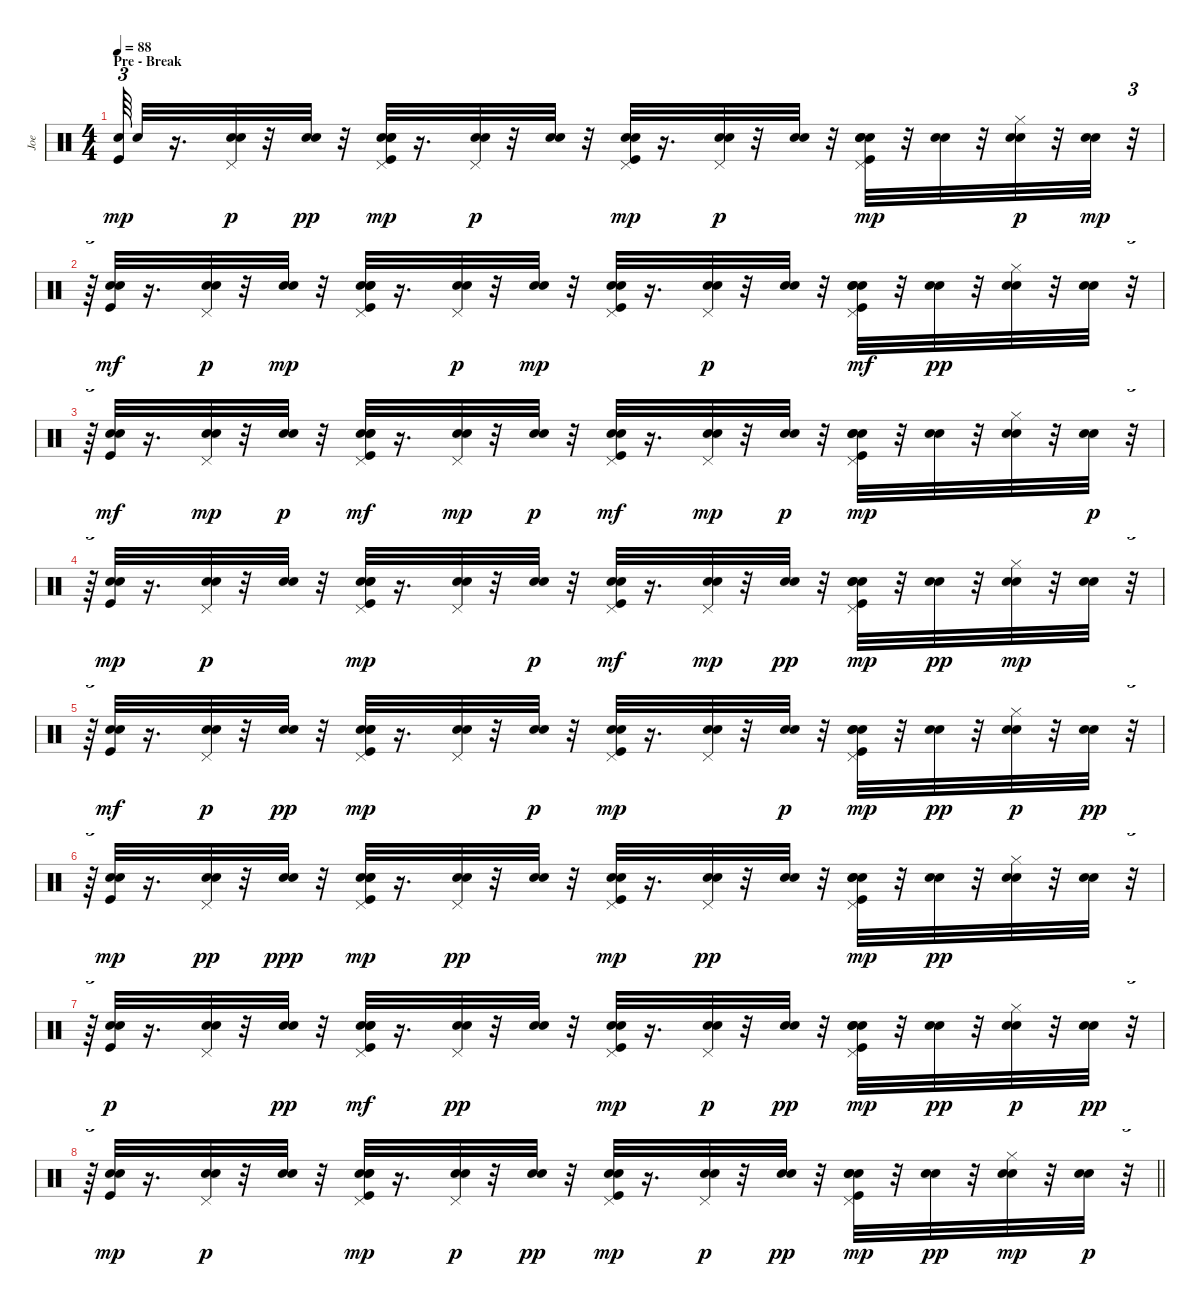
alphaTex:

\track ("Joe" "Joe") {instrument percussion}
\staff {score}
\articulation defaults
\ts (4 4)
\section ("" "Pre - Break")
\tempo 88
\clef neutral
\ks c
("Snare (hit) 2" "Kick (hit)").64{tu (3 2) dy mp} "Snare (hit) 2".32 r.16{d} ("Pedal Hi-Hat (hit)" "Snare (hit) 2" "Snare (hit) 2").32{dy p} r.32 ("Snare (hit) 2" "Snare (hit) 2").32{dy pp} r.32 ("Pedal Hi-Hat (hit)" "Kick (hit)" "Electric Snare (hit)" "Snare (hit) 2" "Snare (hit) 2").32{dy mp} r.16{d} ("Pedal Hi-Hat (hit)" "Snare (hit) 2" "Snare (hit) 2").32{dy p} r.32 ("Snare (hit) 2" "Snare (hit) 2").32 r.32 ("Kick (hit)" "Pedal Hi-Hat (hit)" "Snare (hit) 2" "Snare (hit) 2").32{dy mp} r.16{d} ("Pedal Hi-Hat (hit)" "Snare (hit) 2" "Snare (hit) 2").32{dy p} r.32 ("Snare (hit) 2" "Snare (hit) 2").32 r.32 ("Kick (hit)" "Electric Snare (hit)" "Pedal Hi-Hat (hit)" "Snare (hit) 2" "Snare (hit) 2").32{dy mp} r.32 ("Snare (hit) 2" "Snare (hit) 2").32 r.32 ("Hi-Hat (closed)" "Snare (hit) 2" "Snare (hit) 2").32{dy p} r.32 ("Snare (hit) 2" "Snare (hit) 2").32{dy mp} r.32{tu (3 2)} |
r.64{tu (3 2)} ("Kick (hit)" "Snare (hit) 2" "Snare (hit) 2").32{dy mf} r.16{d} ("Pedal Hi-Hat (hit)" "Snare (hit) 2" "Snare (hit) 2").32{dy p} r.32 ("Snare (hit) 2" "Snare (hit) 2").32{dy mp} r.32 ("Pedal Hi-Hat (hit)" "Kick (hit)" "Electric Snare (hit)" "Snare (hit) 2" "Snare (hit) 2").32 r.16{d} ("Pedal Hi-Hat (hit)" "Snare (hit) 2" "Snare (hit) 2").32{dy p} r.32 ("Snare (hit) 2" "Snare (hit) 2").32{dy mp} r.32 ("Kick (hit)" "Pedal Hi-Hat (hit)" "Snare (hit) 2" "Snare (hit) 2").32 r.16{d} ("Pedal Hi-Hat (hit)" "Snare (hit) 2" "Snare (hit) 2").32{dy p} r.32 ("Snare (hit) 2" "Snare (hit) 2").32 r.32 ("Kick (hit)" "Electric Snare (hit)" "Pedal Hi-Hat (hit)" "Snare (hit) 2" "Snare (hit) 2").32{dy mf} r.32 ("Snare (hit) 2" "Snare (hit) 2").32{dy pp} r.32 ("Hi-Hat (closed)" "Snare (hit) 2" "Snare (hit) 2").32 r.32 ("Snare (hit) 2" "Snare (hit) 2").32 r.32{tu (3 2)} |
r.64{tu (3 2)} ("Kick (hit)" "Snare (hit) 2" "Snare (hit) 2").32{dy mf} r.16{d} ("Pedal Hi-Hat (hit)" "Snare (hit) 2" "Snare (hit) 2").32{dy mp} r.32 ("Snare (hit) 2" "Snare (hit) 2").32{dy p} r.32 ("Pedal Hi-Hat (hit)" "Kick (hit)" "Electric Snare (hit)" "Snare (hit) 2" "Snare (hit) 2").32{dy mf} r.16{d} ("Pedal Hi-Hat (hit)" "Snare (hit) 2" "Snare (hit) 2").32{dy mp} r.32 ("Snare (hit) 2" "Snare (hit) 2").32{dy p} r.32 ("Kick (hit)" "Pedal Hi-Hat (hit)" "Snare (hit) 2" "Snare (hit) 2").32{dy mf} r.16{d} ("Pedal Hi-Hat (hit)" "Snare (hit) 2" "Snare (hit) 2").32{dy mp} r.32 ("Snare (hit) 2" "Snare (hit) 2").32{dy p} r.32 ("Kick (hit)" "Electric Snare (hit)" "Pedal Hi-Hat (hit)" "Snare (hit) 2" "Snare (hit) 2").32{dy mp} r.32 ("Snare (hit) 2" "Snare (hit) 2").32 r.32 ("Hi-Hat (closed)" "Snare (hit) 2" "Snare (hit) 2").32 r.32 ("Snare (hit) 2" "Snare (hit) 2").32{dy p} r.32{tu (3 2)} |
r.64{tu (3 2)} ("Kick (hit)" "Snare (hit) 2" "Snare (hit) 2").32{dy mp} r.16{d} ("Pedal Hi-Hat (hit)" "Snare (hit) 2" "Snare (hit) 2").32{dy p} r.32 ("Snare (hit) 2" "Snare (hit) 2").32 r.32 ("Pedal Hi-Hat (hit)" "Kick (hit)" "Electric Snare (hit)" "Snare (hit) 2" "Snare (hit) 2").32{dy mp} r.16{d} ("Pedal Hi-Hat (hit)" "Snare (hit) 2" "Snare (hit) 2").32 r.32 ("Snare (hit) 2" "Snare (hit) 2").32{dy p} r.32 ("Kick (hit)" "Pedal Hi-Hat (hit)" "Snare (hit) 2" "Snare (hit) 2").32{dy mf} r.16{d} ("Pedal Hi-Hat (hit)" "Snare (hit) 2" "Snare (hit) 2").32{dy mp} r.32 ("Snare (hit) 2" "Snare (hit) 2").32{dy pp} r.32 ("Kick (hit)" "Electric Snare (hit)" "Pedal Hi-Hat (hit)" "Snare (hit) 2" "Snare (hit) 2").32{dy mp} r.32 ("Snare (hit) 2" "Snare (hit) 2").32{dy pp} r.32 ("Hi-Hat (closed)" "Snare (hit) 2" "Snare (hit) 2").32{dy mp} r.32 ("Snare (hit) 2" "Snare (hit) 2").32 r.32{tu (3 2)} |
r.64{tu (3 2)} ("Kick (hit)" "Snare (hit) 2" "Snare (hit) 2").32{dy mf} r.16{d} ("Pedal Hi-Hat (hit)" "Snare (hit) 2" "Snare (hit) 2").32{dy p} r.32 ("Snare (hit) 2" "Snare (hit) 2").32{dy pp} r.32 ("Pedal Hi-Hat (hit)" "Kick (hit)" "Electric Snare (hit)" "Snare (hit) 2" "Snare (hit) 2").32{dy mp} r.16{d} ("Pedal Hi-Hat (hit)" "Snare (hit) 2" "Snare (hit) 2").32 r.32 ("Snare (hit) 2" "Snare (hit) 2").32{dy p} r.32 ("Kick (hit)" "Pedal Hi-Hat (hit)" "Snare (hit) 2" "Snare (hit) 2").32{dy mp} r.16{d} ("Pedal Hi-Hat (hit)" "Snare (hit) 2" "Snare (hit) 2").32 r.32 ("Snare (hit) 2" "Snare (hit) 2").32{dy p} r.32 ("Kick (hit)" "Electric Snare (hit)" "Pedal Hi-Hat (hit)" "Snare (hit) 2" "Snare (hit) 2").32{dy mp} r.32 ("Snare (hit) 2" "Snare (hit) 2").32{dy pp} r.32 ("Hi-Hat (closed)" "Snare (hit) 2" "Snare (hit) 2").32{dy p} r.32 ("Snare (hit) 2" "Snare (hit) 2").32{dy pp} r.32{tu (3 2)} |
r.64{tu (3 2)} ("Kick (hit)" "Snare (hit) 2" "Snare (hit) 2").32{dy mp} r.16{d} ("Pedal Hi-Hat (hit)" "Snare (hit) 2" "Snare (hit) 2").32{dy pp} r.32 ("Snare (hit) 2" "Snare (hit) 2").32{dy ppp} r.32 ("Pedal Hi-Hat (hit)" "Kick (hit)" "Electric Snare (hit)" "Snare (hit) 2" "Snare (hit) 2").32{dy mp} r.16{d} ("Pedal Hi-Hat (hit)" "Snare (hit) 2" "Snare (hit) 2").32{dy pp} r.32 ("Snare (hit) 2" "Snare (hit) 2").32 r.32 ("Kick (hit)" "Pedal Hi-Hat (hit)" "Snare (hit) 2" "Snare (hit) 2").32{dy mp} r.16{d} ("Pedal Hi-Hat (hit)" "Snare (hit) 2" "Snare (hit) 2").32{dy pp} r.32 ("Snare (hit) 2" "Snare (hit) 2").32 r.32 ("Kick (hit)" "Electric Snare (hit)" "Pedal Hi-Hat (hit)" "Snare (hit) 2" "Snare (hit) 2").32{dy mp} r.32 ("Snare (hit) 2" "Snare (hit) 2").32{dy pp} r.32 ("Hi-Hat (closed)" "Snare (hit) 2" "Snare (hit) 2").32 r.32 ("Snare (hit) 2" "Snare (hit) 2").32 r.32{tu (3 2)} |
r.64{tu (3 2)} ("Kick (hit)" "Snare (hit) 2" "Snare (hit) 2").32{dy p} r.16{d} ("Pedal Hi-Hat (hit)" "Snare (hit) 2" "Snare (hit) 2").32 r.32 ("Snare (hit) 2" "Snare (hit) 2").32{dy pp} r.32 ("Pedal Hi-Hat (hit)" "Kick (hit)" "Electric Snare (hit)" "Snare (hit) 2" "Snare (hit) 2").32{dy mf} r.16{d} ("Pedal Hi-Hat (hit)" "Snare (hit) 2" "Snare (hit) 2").32{dy pp} r.32 ("Snare (hit) 2" "Snare (hit) 2").32 r.32 ("Kick (hit)" "Pedal Hi-Hat (hit)" "Snare (hit) 2" "Snare (hit) 2").32{dy mp} r.16{d} ("Pedal Hi-Hat (hit)" "Snare (hit) 2" "Snare (hit) 2").32{dy p} r.32 ("Snare (hit) 2" "Snare (hit) 2").32{dy pp} r.32 ("Kick (hit)" "Electric Snare (hit)" "Pedal Hi-Hat (hit)" "Snare (hit) 2" "Snare (hit) 2").32{dy mp} r.32 ("Snare (hit) 2" "Snare (hit) 2").32{dy pp} r.32 ("Hi-Hat (closed)" "Snare (hit) 2" "Snare (hit) 2").32{dy p} r.32 ("Snare (hit) 2" "Snare (hit) 2").32{dy pp} r.32{tu (3 2)} |
\barLineRight lightlight
r.64{tu (3 2)} ("Kick (hit)" "Snare (hit) 2" "Snare (hit) 2").32{dy mp} r.16{d} ("Pedal Hi-Hat (hit)" "Snare (hit) 2" "Snare (hit) 2").32{dy p} r.32 ("Snare (hit) 2" "Snare (hit) 2").32 r.32 ("Pedal Hi-Hat (hit)" "Kick (hit)" "Electric Snare (hit)" "Snare (hit) 2" "Snare (hit) 2").32{dy mp} r.16{d} ("Pedal Hi-Hat (hit)" "Snare (hit) 2" "Snare (hit) 2").32{dy p} r.32 ("Snare (hit) 2" "Snare (hit) 2").32{dy pp} r.32 ("Kick (hit)" "Pedal Hi-Hat (hit)" "Snare (hit) 2" "Snare (hit) 2").32{dy mp} r.16{d} ("Pedal Hi-Hat (hit)" "Snare (hit) 2" "Snare (hit) 2").32{dy p} r.32 ("Snare (hit) 2" "Snare (hit) 2").32{dy pp} r.32 ("Kick (hit)" "Electric Snare (hit)" "Pedal Hi-Hat (hit)" "Snare (hit) 2" "Snare (hit) 2").32{dy mp} r.32 ("Snare (hit) 2" "Snare (hit) 2").32{dy pp} r.32 ("Hi-Hat (closed)" "Snare (hit) 2" "Snare (hit) 2").32{dy mp} r.32 ("Snare (hit) 2" "Snare (hit) 2").32{dy p} r.32{tu (3 2)}
